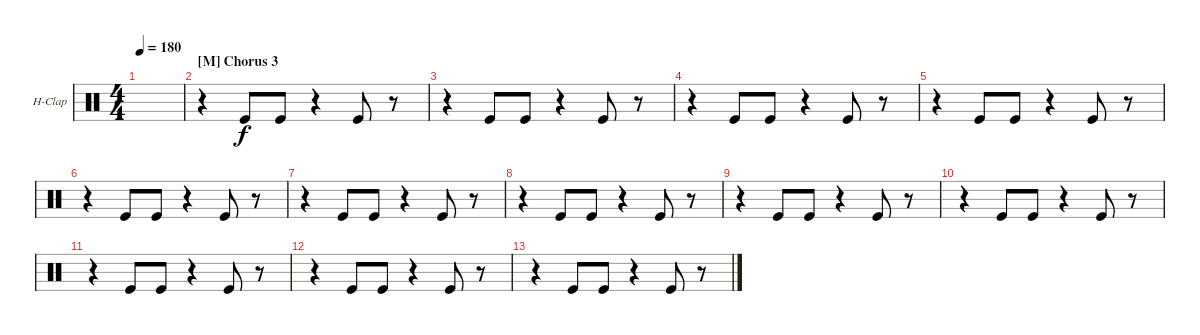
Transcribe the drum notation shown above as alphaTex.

\defaultSystemsLayout 4
\bracketExtendMode groupsimilarinstruments
\firstSystemTrackNameOrientation horizontal
\otherSystemsTrackNameOrientation horizontal
\track ("Hand Clap" "H-Clap") {instrument percussion}
\staff {score}
\articulation defaults
\ts (4 4)
\tempo 180
\clef neutral
\ks c
|
\section ("M" "Chorus 3")
r.4 "Kick (hit)".8 "Kick (hit)".8 r.4 "Kick (hit)".8 r.8 |
r.4 "Kick (hit)".8 "Kick (hit)".8 r.4 "Kick (hit)".8 r.8 |
r.4 "Kick (hit)".8 "Kick (hit)".8 r.4 "Kick (hit)".8 r.8 |
r.4 "Kick (hit)".8 "Kick (hit)".8 r.4 "Kick (hit)".8 r.8 |
r.4 "Kick (hit)".8 "Kick (hit)".8 r.4 "Kick (hit)".8 r.8 |
r.4 "Kick (hit)".8 "Kick (hit)".8 r.4 "Kick (hit)".8 r.8 |
r.4 "Kick (hit)".8 "Kick (hit)".8 r.4 "Kick (hit)".8 r.8 |
r.4 "Kick (hit)".8 "Kick (hit)".8 r.4 "Kick (hit)".8 r.8 |
r.4 "Kick (hit)".8 "Kick (hit)".8 r.4 "Kick (hit)".8 r.8 |
r.4 "Kick (hit)".8 "Kick (hit)".8 r.4 "Kick (hit)".8 r.8 |
r.4 "Kick (hit)".8 "Kick (hit)".8 r.4 "Kick (hit)".8 r.8 |
r.4 "Kick (hit)".8 "Kick (hit)".8 r.4 "Kick (hit)".8 r.8
